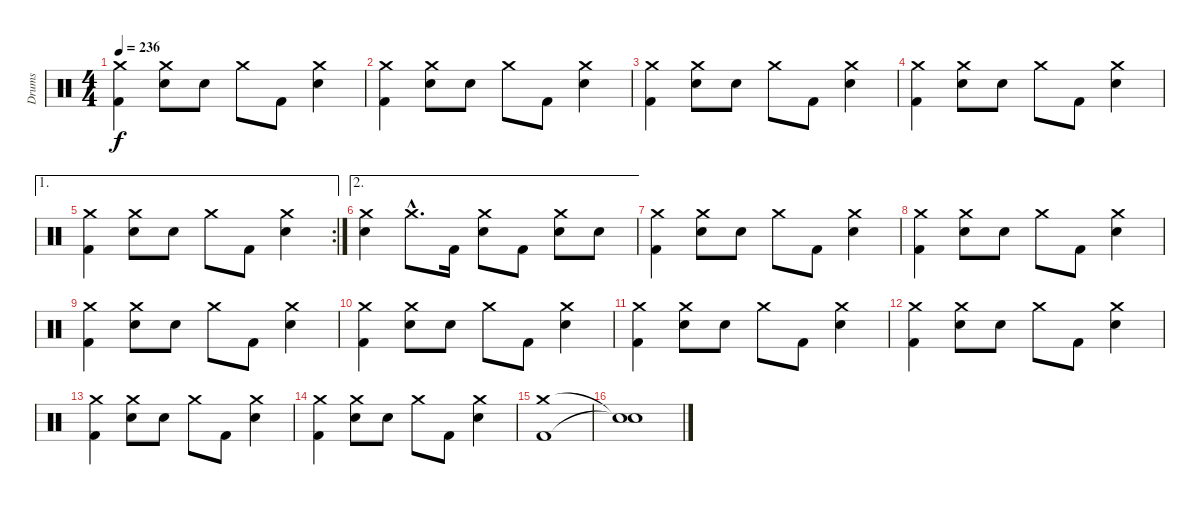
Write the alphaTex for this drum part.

\track ("Drums" "Drums") {instrument percussion}
\staff {score}
\articulation defaults
\ts (4 4)
\tempo 236
\clef neutral
\ks c
("Crash medium (hit)" "Kick (hit) 2").4{dy f} ("Crash medium (hit)" "Electric Snare (hit)").8 "Electric Snare (hit)".8 "Crash medium (hit)".8 "Kick (hit) 2".8 ("Crash medium (hit)" "Electric Snare (hit)").4 |
("Crash medium (hit)" "Kick (hit) 2").4 ("Crash medium (hit)" "Electric Snare (hit)").8 "Electric Snare (hit)".8 "Crash medium (hit)".8 "Kick (hit) 2".8 ("Crash medium (hit)" "Electric Snare (hit)").4 |
("Crash medium (hit)" "Kick (hit) 2").4 ("Crash medium (hit)" "Electric Snare (hit)").8 "Electric Snare (hit)".8 "Crash medium (hit)".8 "Kick (hit) 2".8 ("Crash medium (hit)" "Electric Snare (hit)").4 |
("Crash medium (hit)" "Kick (hit) 2").4 ("Crash medium (hit)" "Electric Snare (hit)").8 "Electric Snare (hit)".8 "Crash medium (hit)".8 "Kick (hit) 2".8 ("Crash medium (hit)" "Electric Snare (hit)").4 |
\ae 1
\rc 2
("Crash medium (hit)" "Kick (hit) 2").4 ("Crash medium (hit)" "Electric Snare (hit)").8 "Electric Snare (hit)".8 "Crash medium (hit)".8 "Kick (hit) 2".8 ("Crash medium (hit)" "Electric Snare (hit)").4 |
\ae 2
("Crash medium (hit)" "Electric Snare (hit)").4 "Crash medium (hit)"{hac}.8{d} "Kick (hit) 2".16 ("Crash medium (hit)" "Electric Snare (hit)").8 "Kick (hit) 2".8 ("Crash medium (hit)" "Electric Snare (hit)").8 "Electric Snare (hit)".8 |
("Crash medium (hit)" "Kick (hit) 2").4 ("Crash medium (hit)" "Electric Snare (hit)").8 "Electric Snare (hit)".8 "Crash medium (hit)".8 "Kick (hit) 2".8 ("Crash medium (hit)" "Electric Snare (hit)").4 |
("Crash medium (hit)" "Kick (hit) 2").4 ("Crash medium (hit)" "Electric Snare (hit)").8 "Electric Snare (hit)".8 "Crash medium (hit)".8 "Kick (hit) 2".8 ("Crash medium (hit)" "Electric Snare (hit)").4 |
("Crash medium (hit)" "Kick (hit) 2").4 ("Crash medium (hit)" "Electric Snare (hit)").8 "Electric Snare (hit)".8 "Crash medium (hit)".8 "Kick (hit) 2".8 ("Crash medium (hit)" "Electric Snare (hit)").4 |
("Crash medium (hit)" "Kick (hit) 2").4 ("Crash medium (hit)" "Electric Snare (hit)").8 "Electric Snare (hit)".8 "Crash medium (hit)".8 "Kick (hit) 2".8 ("Crash medium (hit)" "Electric Snare (hit)").4 |
("Crash medium (hit)" "Kick (hit) 2").4 ("Crash medium (hit)" "Electric Snare (hit)").8 "Electric Snare (hit)".8 "Crash medium (hit)".8 "Kick (hit) 2".8 ("Crash medium (hit)" "Electric Snare (hit)").4 |
("Crash medium (hit)" "Kick (hit) 2").4 ("Crash medium (hit)" "Electric Snare (hit)").8 "Electric Snare (hit)".8 "Crash medium (hit)".8 "Kick (hit) 2".8 ("Crash medium (hit)" "Electric Snare (hit)").4 |
("Crash medium (hit)" "Kick (hit) 2").4 ("Crash medium (hit)" "Electric Snare (hit)").8 "Electric Snare (hit)".8 "Crash medium (hit)".8 "Kick (hit) 2".8 ("Crash medium (hit)" "Electric Snare (hit)").4 |
("Crash medium (hit)" "Kick (hit) 2").4 ("Crash medium (hit)" "Electric Snare (hit)").8 "Electric Snare (hit)".8 "Crash medium (hit)".8 "Kick (hit) 2".8 ("Crash medium (hit)" "Electric Snare (hit)").4 |
("Crash medium (hit)" "Kick (hit) 2").1 |
("Snare (hit)"{t} "Snare (hit)"{t}).1
